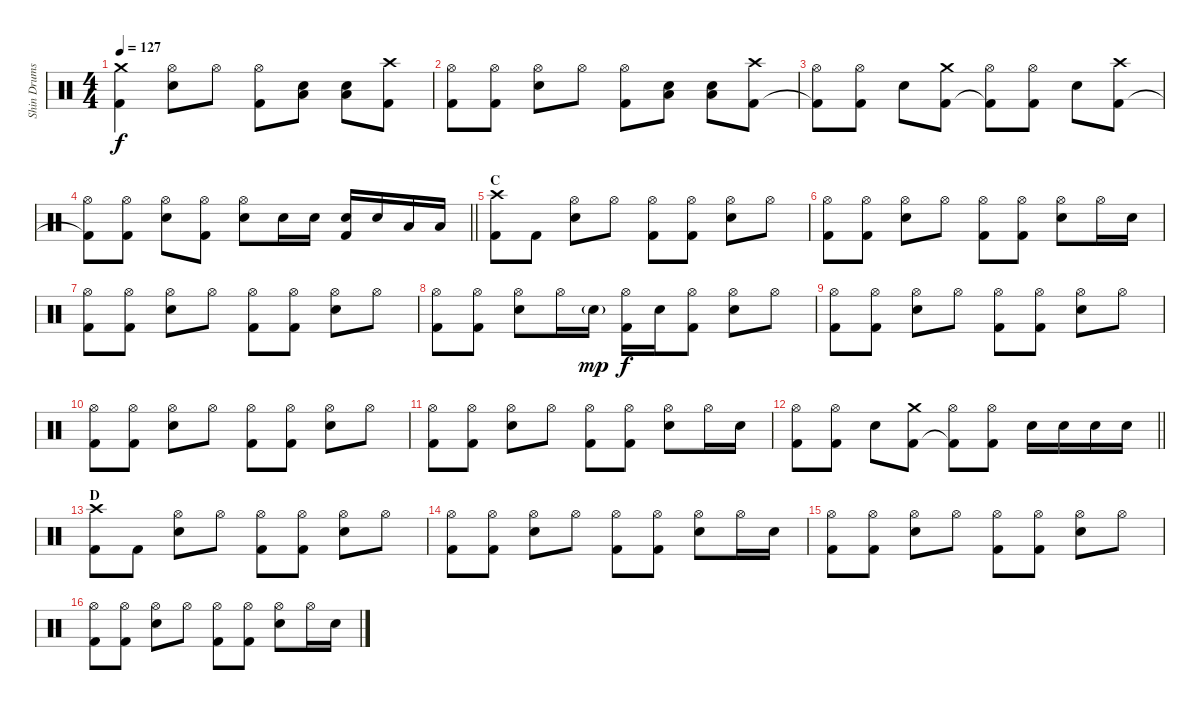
\track ("Shin Drums" "Shin Drums") {instrument percussion}
\staff {score}
\articulation defaults
\ts (4 4)
\tempo 127
\clef neutral
\ks c
("Crash medium (hit)" "Kick (hit) 2").4{dy f} ("Hi-Hat (open)" "Snare (hit) 2").8 "Hi-Hat (open)".8 ("Hi-Hat (open)" "Kick (hit) 2").8 ("Snare (hit) 2" "Low Tom (hit)").8 ("Snare (hit) 2" "Low Tom (hit)").8 ("Crash high (hit)" "Kick (hit) 2").8 |
("Hi-Hat (open)" "Kick (hit) 2").8 ("Hi-Hat (open)" "Kick (hit) 2").8 ("Hi-Hat (open)" "Snare (hit) 2").8 "Hi-Hat (open)".8 ("Hi-Hat (open)" "Kick (hit) 2").8 ("Snare (hit) 2" "Low Tom (hit)").8 ("Snare (hit) 2" "Low Tom (hit)").8 ("Crash high (hit)" "Kick (hit) 2").8 |
("Hi-Hat (open)" "Kick (hit) 2"{t}).8 ("Hi-Hat (open)" "Kick (hit) 2").8 "Snare (hit) 2".8 ("Crash medium (hit)" "Kick (hit) 2").8 ("Hi-Hat (open)" "Kick (hit) 2"{t}).8 ("Hi-Hat (open)" "Kick (hit) 2").8 "Snare (hit) 2".8 ("Crash high (hit)" "Kick (hit) 2").8 |
\barLineRight lightlight
("Hi-Hat (open)" "Kick (hit) 2"{t}).8 ("Hi-Hat (open)" "Kick (hit) 2").8 ("Hi-Hat (open)" "Snare (hit) 2").8 ("Hi-Hat (open)" "Kick (hit) 2").8 ("Hi-Hat (open)" "Snare (hit) 2").8 "Snare (hit) 2".16 "Snare (hit) 2".16 ("Snare (hit) 2" "Kick (hit) 2").16 "Snare (hit) 2".16 "Low Tom (hit)".16 "Low Tom (hit)".16 |
\section ("" "C")
("Crash high (hit)" "Kick (hit) 2").8 "Kick (hit) 2".8 ("Hi-Hat (open)" "Snare (hit) 2").8 "Hi-Hat (open)".8 ("Hi-Hat (open)" "Kick (hit) 2").8 ("Hi-Hat (open)" "Kick (hit) 2").8 ("Hi-Hat (open)" "Snare (hit) 2").8 "Hi-Hat (open)".8 |
("Hi-Hat (open)" "Kick (hit) 2").8 ("Hi-Hat (open)" "Kick (hit) 2").8 ("Hi-Hat (open)" "Snare (hit) 2").8 "Hi-Hat (open)".8 ("Hi-Hat (open)" "Kick (hit) 2").8 ("Hi-Hat (open)" "Kick (hit) 2").8 ("Hi-Hat (open)" "Snare (hit) 2").8 "Hi-Hat (open)".16 "Snare (hit) 2".16 |
("Hi-Hat (open)" "Kick (hit) 2").8 ("Hi-Hat (open)" "Kick (hit) 2").8 ("Hi-Hat (open)" "Snare (hit) 2").8 "Hi-Hat (open)".8 ("Hi-Hat (open)" "Kick (hit) 2").8 ("Hi-Hat (open)" "Kick (hit) 2").8 ("Hi-Hat (open)" "Snare (hit) 2").8 "Hi-Hat (open)".8 |
("Hi-Hat (open)" "Kick (hit) 2").8 ("Hi-Hat (open)" "Kick (hit) 2").8 ("Hi-Hat (open)" "Snare (hit) 2").8 "Hi-Hat (open)".16 "Snare (hit) 2"{g}.16{dy mp} ("Hi-Hat (open)" "Kick (hit) 2").16{dy f} "Snare (hit) 2".16 ("Hi-Hat (open)" "Kick (hit) 2").8 ("Hi-Hat (open)" "Snare (hit) 2").8 "Hi-Hat (open)".8 |
("Hi-Hat (open)" "Kick (hit) 2").8 ("Hi-Hat (open)" "Kick (hit) 2").8 ("Hi-Hat (open)" "Snare (hit) 2").8 "Hi-Hat (open)".8 ("Hi-Hat (open)" "Kick (hit) 2").8 ("Hi-Hat (open)" "Kick (hit) 2").8 ("Hi-Hat (open)" "Snare (hit) 2").8 "Hi-Hat (open)".8 |
("Hi-Hat (open)" "Kick (hit) 2").8 ("Hi-Hat (open)" "Kick (hit) 2").8 ("Hi-Hat (open)" "Snare (hit) 2").8 "Hi-Hat (open)".8 ("Hi-Hat (open)" "Kick (hit) 2").8 ("Hi-Hat (open)" "Kick (hit) 2").8 ("Hi-Hat (open)" "Snare (hit) 2").8 "Hi-Hat (open)".8 |
("Hi-Hat (open)" "Kick (hit) 2").8 ("Hi-Hat (open)" "Kick (hit) 2").8 ("Hi-Hat (open)" "Snare (hit) 2").8 "Hi-Hat (open)".8 ("Hi-Hat (open)" "Kick (hit) 2").8 ("Hi-Hat (open)" "Kick (hit) 2").8 ("Hi-Hat (open)" "Snare (hit) 2").8 "Hi-Hat (open)".16 "Snare (hit) 2".16 |
\barLineRight lightlight
("Hi-Hat (open)" "Kick (hit) 2").8 ("Hi-Hat (open)" "Kick (hit) 2").8 "Snare (hit) 2".8 ("Crash medium (hit)" "Kick (hit) 2").8 ("Hi-Hat (open)" "Kick (hit) 2"{t}).8 ("Hi-Hat (open)" "Kick (hit) 2").8 "Snare (hit) 2".16 "Snare (hit) 2".16 "Snare (hit) 2".16 "Snare (hit) 2".16 |
\section ("" "D")
("Crash high (hit)" "Kick (hit) 2").8 "Kick (hit) 2".8 ("Hi-Hat (open)" "Snare (hit) 2").8 "Hi-Hat (open)".8 ("Hi-Hat (open)" "Kick (hit) 2").8 ("Hi-Hat (open)" "Kick (hit) 2").8 ("Hi-Hat (open)" "Snare (hit) 2").8 "Hi-Hat (open)".8 |
("Hi-Hat (open)" "Kick (hit) 2").8 ("Hi-Hat (open)" "Kick (hit) 2").8 ("Hi-Hat (open)" "Snare (hit) 2").8 "Hi-Hat (open)".8 ("Hi-Hat (open)" "Kick (hit) 2").8 ("Hi-Hat (open)" "Kick (hit) 2").8 ("Hi-Hat (open)" "Snare (hit) 2").8 "Hi-Hat (open)".16 "Snare (hit) 2".16 |
("Hi-Hat (open)" "Kick (hit) 2").8 ("Hi-Hat (open)" "Kick (hit) 2").8 ("Hi-Hat (open)" "Snare (hit) 2").8 "Hi-Hat (open)".8 ("Hi-Hat (open)" "Kick (hit) 2").8 ("Hi-Hat (open)" "Kick (hit) 2").8 ("Hi-Hat (open)" "Snare (hit) 2").8 "Hi-Hat (open)".8 |
("Hi-Hat (open)" "Kick (hit) 2").8 ("Hi-Hat (open)" "Kick (hit) 2").8 ("Hi-Hat (open)" "Snare (hit) 2").8 "Hi-Hat (open)".8 ("Hi-Hat (open)" "Kick (hit) 2").8 ("Hi-Hat (open)" "Kick (hit) 2").8 ("Hi-Hat (open)" "Snare (hit) 2").8 "Hi-Hat (open)".16 "Snare (hit) 2".16
